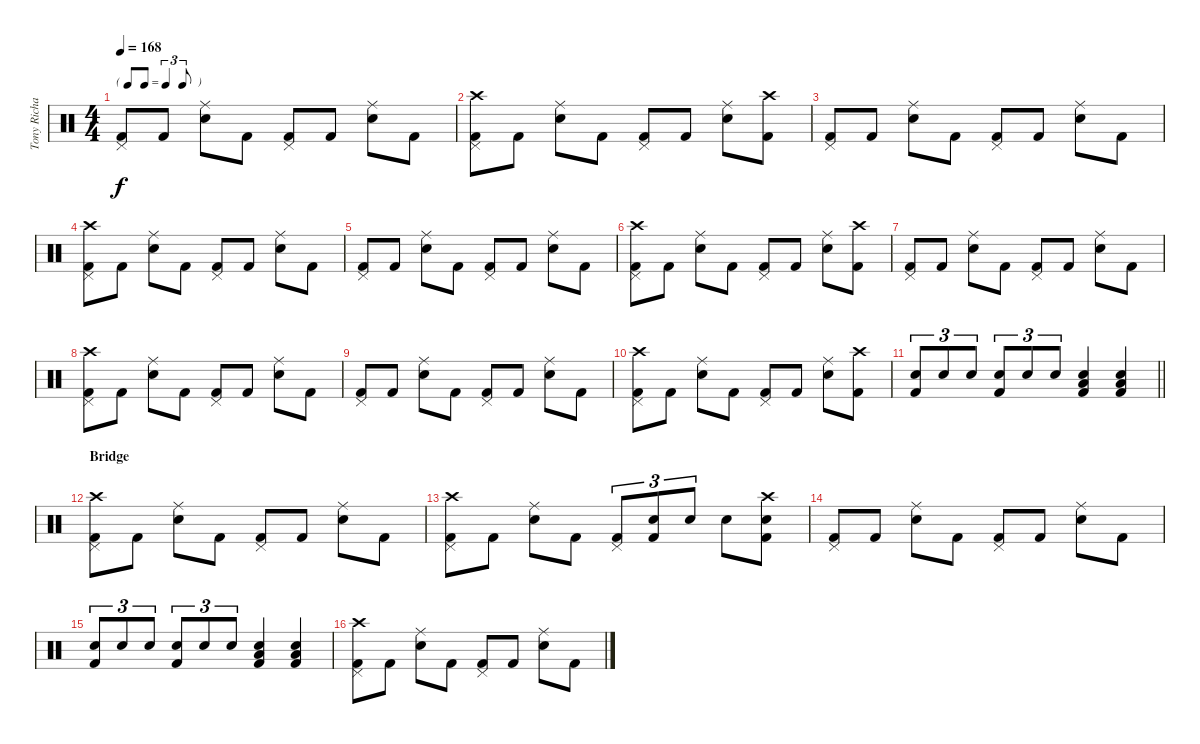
\track ("Tony Richards (drums)" "Tony Richa") {instrument percussion}
\staff {score}
\articulation defaults
\ts (4 4)
\tf triplet8th
\tempo 168
\clef neutral
\ks c
("Pedal Hi-Hat (hit)" "Kick (hit) 2").8{dy f} "Kick (hit) 2".8 ("Ride (middle)" "Snare (hit) 2").8 "Kick (hit) 2".8 ("Pedal Hi-Hat (hit)" "Kick (hit) 2").8 "Kick (hit) 2".8 ("Ride (middle)" "Snare (hit) 2").8 "Kick (hit) 2".8 |
("Crash high (hit)" "Pedal Hi-Hat (hit)" "Kick (hit) 2").8 "Kick (hit) 2".8 ("Ride (middle)" "Snare (hit) 2").8 "Kick (hit) 2".8 ("Pedal Hi-Hat (hit)" "Kick (hit) 2").8 "Kick (hit) 2".8 ("Ride (middle)" "Snare (hit) 2").8 ("Crash high (hit)" "Kick (hit) 2").8 |
("Pedal Hi-Hat (hit)" "Kick (hit) 2").8 "Kick (hit) 2".8 ("Ride (middle)" "Snare (hit) 2").8 "Kick (hit) 2".8 ("Pedal Hi-Hat (hit)" "Kick (hit) 2").8 "Kick (hit) 2".8 ("Ride (middle)" "Snare (hit) 2").8 "Kick (hit) 2".8 |
("Crash high (hit)" "Pedal Hi-Hat (hit)" "Kick (hit) 2").8 "Kick (hit) 2".8 ("Ride (middle)" "Snare (hit) 2").8 "Kick (hit) 2".8 ("Pedal Hi-Hat (hit)" "Kick (hit) 2").8 "Kick (hit) 2".8 ("Ride (middle)" "Snare (hit) 2").8 "Kick (hit) 2".8 |
("Pedal Hi-Hat (hit)" "Kick (hit) 2").8 "Kick (hit) 2".8 ("Ride (middle)" "Snare (hit) 2").8 "Kick (hit) 2".8 ("Pedal Hi-Hat (hit)" "Kick (hit) 2").8 "Kick (hit) 2".8 ("Ride (middle)" "Snare (hit) 2").8 "Kick (hit) 2".8 |
("Crash high (hit)" "Pedal Hi-Hat (hit)" "Kick (hit) 2").8 "Kick (hit) 2".8 ("Ride (middle)" "Snare (hit) 2").8 "Kick (hit) 2".8 ("Pedal Hi-Hat (hit)" "Kick (hit) 2").8 "Kick (hit) 2".8 ("Ride (middle)" "Snare (hit) 2").8 ("Crash high (hit)" "Kick (hit) 2").8 |
("Pedal Hi-Hat (hit)" "Kick (hit) 2").8 "Kick (hit) 2".8 ("Ride (middle)" "Snare (hit) 2").8 "Kick (hit) 2".8 ("Pedal Hi-Hat (hit)" "Kick (hit) 2").8 "Kick (hit) 2".8 ("Ride (middle)" "Snare (hit) 2").8 "Kick (hit) 2".8 |
("Crash high (hit)" "Pedal Hi-Hat (hit)" "Kick (hit) 2").8 "Kick (hit) 2".8 ("Ride (middle)" "Snare (hit) 2").8 "Kick (hit) 2".8 ("Pedal Hi-Hat (hit)" "Kick (hit) 2").8 "Kick (hit) 2".8 ("Ride (middle)" "Snare (hit) 2").8 "Kick (hit) 2".8 |
("Pedal Hi-Hat (hit)" "Kick (hit) 2").8 "Kick (hit) 2".8 ("Ride (middle)" "Snare (hit) 2").8 "Kick (hit) 2".8 ("Pedal Hi-Hat (hit)" "Kick (hit) 2").8 "Kick (hit) 2".8 ("Ride (middle)" "Snare (hit) 2").8 "Kick (hit) 2".8 |
("Crash high (hit)" "Pedal Hi-Hat (hit)" "Kick (hit) 2").8 "Kick (hit) 2".8 ("Ride (middle)" "Snare (hit) 2").8 "Kick (hit) 2".8 ("Pedal Hi-Hat (hit)" "Kick (hit) 2").8 "Kick (hit) 2".8 ("Ride (middle)" "Snare (hit) 2").8 ("Crash high (hit)" "Kick (hit) 2").8 |
\barLineRight lightlight
("Snare (hit) 2" "Kick (hit) 2").8{tu (3 2)} "Snare (hit) 2".8{tu (3 2)} "Snare (hit) 2".8{tu (3 2)} ("Snare (hit) 2" "Kick (hit) 2").8{tu (3 2)} "Snare (hit) 2".8{tu (3 2)} "Snare (hit) 2".8{tu (3 2)} ("Low Floor Tom (hit)" "Snare (hit) 2" "Kick (hit) 2").4 ("Low Floor Tom (hit)" "Snare (hit) 2" "Kick (hit) 2").4 |
\section ("" "Bridge")
("Crash high (hit)" "Pedal Hi-Hat (hit)" "Kick (hit) 2").8 "Kick (hit) 2".8 ("Ride (middle)" "Snare (hit) 2").8 "Kick (hit) 2".8 ("Pedal Hi-Hat (hit)" "Kick (hit) 2").8 "Kick (hit) 2".8 ("Ride (middle)" "Snare (hit) 2").8 "Kick (hit) 2".8 |
("Crash high (hit)" "Pedal Hi-Hat (hit)" "Kick (hit) 2").8 "Kick (hit) 2".8 ("Ride (middle)" "Snare (hit) 2").8 "Kick (hit) 2".8 ("Pedal Hi-Hat (hit)" "Kick (hit) 2").8{tu (3 2)} ("Snare (hit) 2" "Kick (hit) 2").8{tu (3 2)} "Snare (hit) 2".8{tu (3 2)} "Snare (hit) 2".8 ("Crash high (hit)" "Snare (hit) 2" "Kick (hit) 2").8 |
("Pedal Hi-Hat (hit)" "Kick (hit) 2").8 "Kick (hit) 2".8 ("Ride (middle)" "Snare (hit) 2").8 "Kick (hit) 2".8 ("Pedal Hi-Hat (hit)" "Kick (hit) 2").8 "Kick (hit) 2".8 ("Ride (middle)" "Snare (hit) 2").8 "Kick (hit) 2".8 |
("Snare (hit) 2" "Kick (hit) 2").8{tu (3 2)} "Snare (hit) 2".8{tu (3 2)} "Snare (hit) 2".8{tu (3 2)} ("Snare (hit) 2" "Kick (hit) 2").8{tu (3 2)} "Snare (hit) 2".8{tu (3 2)} "Snare (hit) 2".8{tu (3 2)} ("Low Floor Tom (hit)" "Snare (hit) 2" "Kick (hit) 2").4 ("Low Floor Tom (hit)" "Snare (hit) 2" "Kick (hit) 2").4 |
("Crash high (hit)" "Pedal Hi-Hat (hit)" "Kick (hit) 2").8 "Kick (hit) 2".8 ("Ride (middle)" "Snare (hit) 2").8 "Kick (hit) 2".8 ("Pedal Hi-Hat (hit)" "Kick (hit) 2").8 "Kick (hit) 2".8 ("Ride (middle)" "Snare (hit) 2").8 "Kick (hit) 2".8
